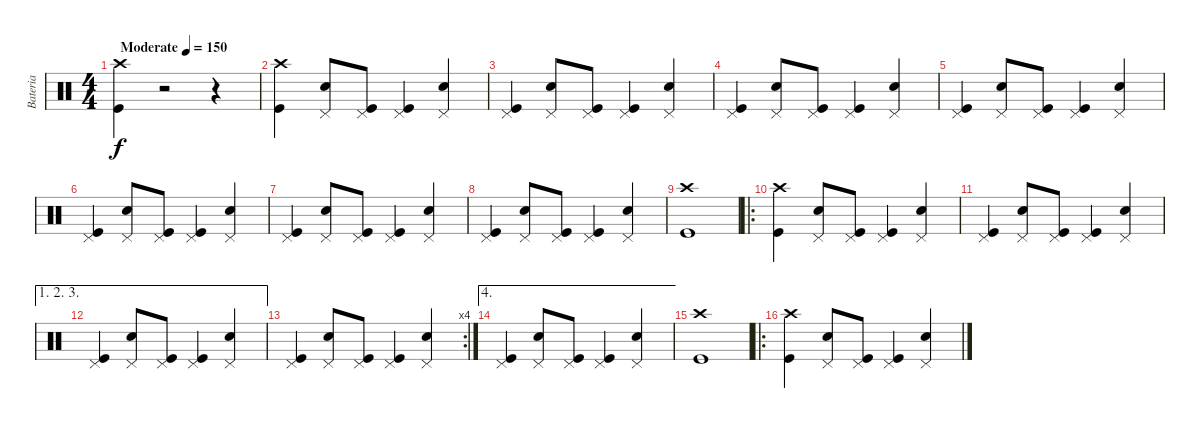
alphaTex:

\track ("Bateria" "Bateria") {instrument percussion}
\staff {score}
\articulation defaults
\ts (4 4)
\tempo (150 "Moderate")
\clef neutral
\ks c
("Crash high (hit)" "Kick (hit)").4{dy f} r.2 r.4 |
("Crash high (hit)" "Kick (hit)").4 ("Pedal Hi-Hat (hit)" "Snare (hit) 2").8 ("Pedal Hi-Hat (hit)" "Kick (hit)").8 ("Pedal Hi-Hat (hit)" "Kick (hit)").4 ("Pedal Hi-Hat (hit)" "Snare (hit) 2").4 |
("Pedal Hi-Hat (hit)" "Kick (hit)").4 ("Pedal Hi-Hat (hit)" "Snare (hit) 2").8 ("Pedal Hi-Hat (hit)" "Kick (hit)").8 ("Pedal Hi-Hat (hit)" "Kick (hit)").4 ("Pedal Hi-Hat (hit)" "Snare (hit) 2").4 |
("Pedal Hi-Hat (hit)" "Kick (hit)").4 ("Pedal Hi-Hat (hit)" "Snare (hit) 2").8 ("Pedal Hi-Hat (hit)" "Kick (hit)").8 ("Pedal Hi-Hat (hit)" "Kick (hit)").4 ("Pedal Hi-Hat (hit)" "Snare (hit) 2").4 |
("Pedal Hi-Hat (hit)" "Kick (hit)").4 ("Pedal Hi-Hat (hit)" "Snare (hit) 2").8 ("Pedal Hi-Hat (hit)" "Kick (hit)").8 ("Pedal Hi-Hat (hit)" "Kick (hit)").4 ("Pedal Hi-Hat (hit)" "Snare (hit) 2").4 |
("Pedal Hi-Hat (hit)" "Kick (hit)").4 ("Pedal Hi-Hat (hit)" "Snare (hit) 2").8 ("Pedal Hi-Hat (hit)" "Kick (hit)").8 ("Pedal Hi-Hat (hit)" "Kick (hit)").4 ("Pedal Hi-Hat (hit)" "Snare (hit) 2").4 |
("Pedal Hi-Hat (hit)" "Kick (hit)").4 ("Pedal Hi-Hat (hit)" "Snare (hit) 2").8 ("Pedal Hi-Hat (hit)" "Kick (hit)").8 ("Pedal Hi-Hat (hit)" "Kick (hit)").4 ("Pedal Hi-Hat (hit)" "Snare (hit) 2").4 |
("Pedal Hi-Hat (hit)" "Kick (hit)").4 ("Pedal Hi-Hat (hit)" "Snare (hit) 2").8 ("Pedal Hi-Hat (hit)" "Kick (hit)").8 ("Pedal Hi-Hat (hit)" "Kick (hit)").4 ("Pedal Hi-Hat (hit)" "Snare (hit) 2").4 |
("Crash high (hit)" "Kick (hit)").1 |
\ro
("Crash high (hit)" "Kick (hit)").4 ("Pedal Hi-Hat (hit)" "Snare (hit) 2").8 ("Pedal Hi-Hat (hit)" "Kick (hit)").8 ("Pedal Hi-Hat (hit)" "Kick (hit)").4 ("Pedal Hi-Hat (hit)" "Snare (hit) 2").4 |
("Pedal Hi-Hat (hit)" "Kick (hit)").4 ("Pedal Hi-Hat (hit)" "Snare (hit) 2").8 ("Pedal Hi-Hat (hit)" "Kick (hit)").8 ("Pedal Hi-Hat (hit)" "Kick (hit)").4 ("Pedal Hi-Hat (hit)" "Snare (hit) 2").4 |
\ae (1 2 3)
("Pedal Hi-Hat (hit)" "Kick (hit)").4 ("Pedal Hi-Hat (hit)" "Snare (hit) 2").8 ("Pedal Hi-Hat (hit)" "Kick (hit)").8 ("Pedal Hi-Hat (hit)" "Kick (hit)").4 ("Pedal Hi-Hat (hit)" "Snare (hit) 2").4 |
\rc 4
("Pedal Hi-Hat (hit)" "Kick (hit)").4 ("Pedal Hi-Hat (hit)" "Snare (hit) 2").8 ("Pedal Hi-Hat (hit)" "Kick (hit)").8 ("Pedal Hi-Hat (hit)" "Kick (hit)").4 ("Pedal Hi-Hat (hit)" "Snare (hit) 2").4 |
\ae 4
("Pedal Hi-Hat (hit)" "Kick (hit)").4 ("Pedal Hi-Hat (hit)" "Snare (hit) 2").8 ("Pedal Hi-Hat (hit)" "Kick (hit)").8 ("Pedal Hi-Hat (hit)" "Kick (hit)").4 ("Pedal Hi-Hat (hit)" "Snare (hit) 2").4 |
("Crash high (hit)" "Kick (hit)").1 |
\ro
("Crash high (hit)" "Kick (hit)").4 ("Pedal Hi-Hat (hit)" "Snare (hit) 2").8 ("Pedal Hi-Hat (hit)" "Kick (hit)").8 ("Pedal Hi-Hat (hit)" "Kick (hit)").4 ("Pedal Hi-Hat (hit)" "Snare (hit) 2").4
